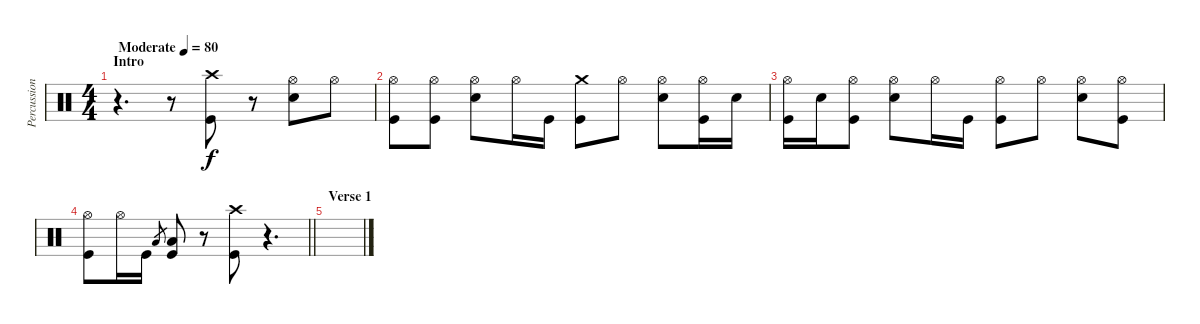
\track ("Percussion" "Percussion") {instrument percussion}
\staff {score}
\articulation defaults
\ts (4 4)
\section ("" "Intro")
\tempo (80 "Moderate")
\clef neutral
\ks c
r.4{d dy f} r.8 ("Crash high (hit)" "Kick (hit)").8 r.8 ("Hi-Hat (open)" "Electric Snare (hit)").8 "Hi-Hat (open)".8 |
("Hi-Hat (open)" "Kick (hit)").8 ("Hi-Hat (open)" "Kick (hit)").8 ("Hi-Hat (open)" "Electric Snare (hit)").8 "Hi-Hat (open)".16 "Kick (hit)".16 ("Crash medium (hit)" "Kick (hit)").8 "Hi-Hat (open)".8 ("Hi-Hat (open)" "Electric Snare (hit)").8 ("Hi-Hat (open)" "Kick (hit)").16 "Electric Snare (hit)".16 |
("Hi-Hat (open)" "Kick (hit)").16 "Electric Snare (hit)".16 ("Hi-Hat (open)" "Kick (hit)").8 ("Hi-Hat (open)" "Electric Snare (hit)").8 "Hi-Hat (open)".16 "Kick (hit)".16 ("Hi-Hat (open)" "Kick (hit)").8 "Hi-Hat (open)".8 ("Hi-Hat (open)" "Electric Snare (hit)").8 ("Hi-Hat (open)" "Kick (hit)").8 |
\barLineRight lightlight
("Hi-Hat (open)" "Kick (hit)").8 "Hi-Hat (open)".16 "Kick (hit)".16 "Low Tom (hit)".8{gr} ("Low Tom (hit)" "Kick (hit)").8 r.8 ("Crash high (hit)" "Kick (hit)").8 r.4{d} |
\section ("" "Verse 1")
